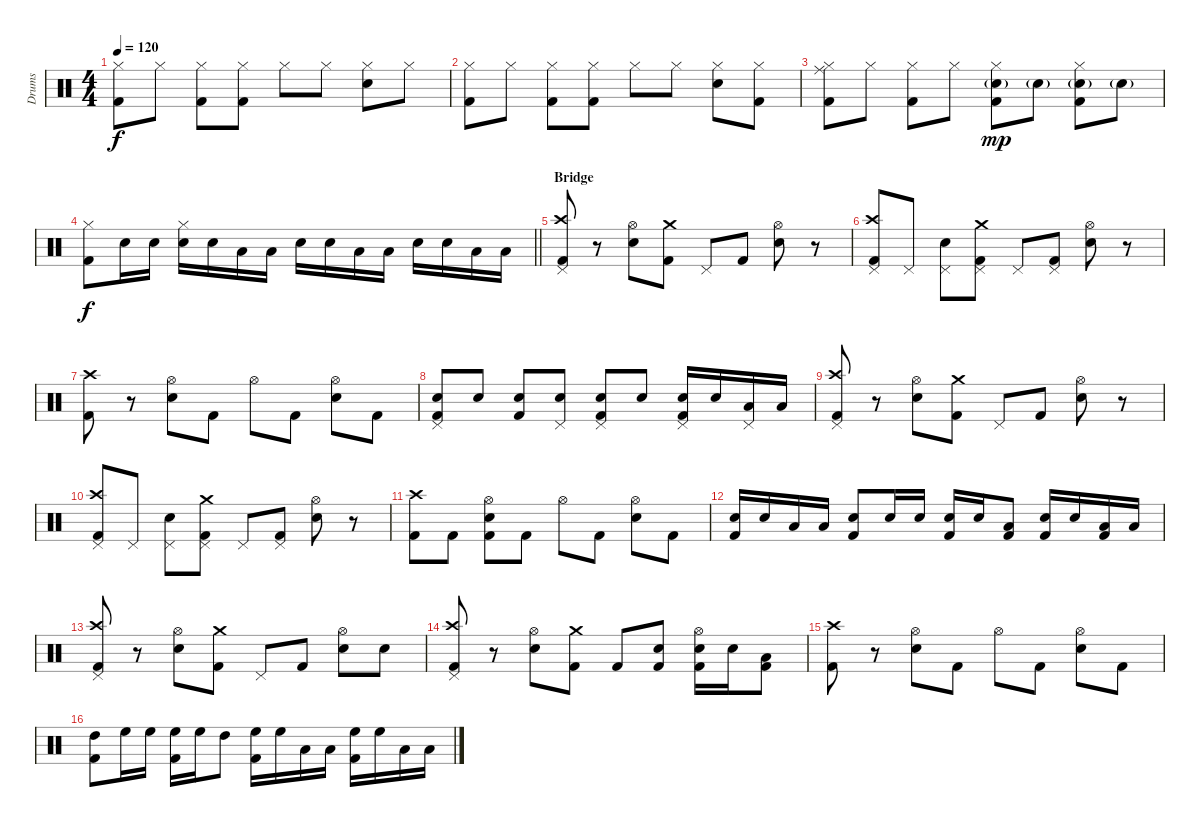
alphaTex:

\track ("Drums" "Drums") {instrument percussion}
\staff {score}
\articulation defaults
\ts (4 4)
\tempo 120
\clef neutral
\ks c
("Hi-Hat (closed)" "Kick (hit) 2").8{dy f} "Hi-Hat (closed)".8 ("Hi-Hat (closed)" "Kick (hit) 2").8 ("Hi-Hat (closed)" "Kick (hit) 2").8 "Hi-Hat (closed)".8 "Hi-Hat (closed)".8 ("Hi-Hat (closed)" "Electric Snare (hit)").8 "Hi-Hat (closed)".8 |
("Hi-Hat (closed)" "Kick (hit) 2").8 "Hi-Hat (closed)".8 ("Hi-Hat (closed)" "Kick (hit) 2").8 ("Hi-Hat (closed)" "Kick (hit) 2").8 "Hi-Hat (closed)".8 "Hi-Hat (closed)".8 ("Hi-Hat (closed)" "Electric Snare (hit)").8 ("Hi-Hat (closed)" "Kick (hit) 2").8 |
("Ride (middle)" "Hi-Hat (closed)" "Kick (hit) 2").8 "Hi-Hat (closed)".8 ("Hi-Hat (closed)" "Kick (hit) 2").8 "Hi-Hat (closed)".8 ("Hi-Hat (closed)" "Electric Snare (hit)"{g} "Kick (hit) 2").8{dy mp} "Electric Snare (hit)"{g}.8 ("Hi-Hat (closed)" "Electric Snare (hit)"{g} "Kick (hit) 2").8 "Electric Snare (hit)"{g}.8 |
\barLineRight lightlight
("Hi-Hat (closed)" "Kick (hit) 2").8{dy f} "Electric Snare (hit)".16 "Electric Snare (hit)".16 ("Hi-Hat (closed)" "Electric Snare (hit)").16 "Electric Snare (hit)".16 "Low Tom (hit)".16 "Low Tom (hit)".16 "Electric Snare (hit)".16 "Electric Snare (hit)".16 "Low Tom (hit)".16 "Low Tom (hit)".16 "Electric Snare (hit)".16 "Electric Snare (hit)".16 "Low Tom (hit)".16 "Low Tom (hit)".16 |
\section ("" "Bridge")
("Crash high (hit)" "Pedal Hi-Hat (hit)" "Kick (hit) 2").8 r.8 ("Hi-Hat (open)" "Electric Snare (hit)").8 ("Crash medium (hit)" "Kick (hit) 2").8 "Pedal Hi-Hat (hit)".8 "Kick (hit) 2".8 ("Hi-Hat (open)" "Electric Snare (hit)").8 r.8 |
("Crash high (hit)" "Pedal Hi-Hat (hit)" "Kick (hit) 2").8 "Pedal Hi-Hat (hit)".8 ("Pedal Hi-Hat (hit)" "Electric Snare (hit)").8 ("Crash medium (hit)" "Pedal Hi-Hat (hit)" "Kick (hit) 2").8 "Pedal Hi-Hat (hit)".8 ("Pedal Hi-Hat (hit)" "Kick (hit) 2").8 ("Hi-Hat (open)" "Electric Snare (hit)").8 r.8 |
("Crash high (hit)" "Kick (hit) 2").8 r.8 ("Hi-Hat (open)" "Electric Snare (hit)").8 "Kick (hit) 2".8 "Hi-Hat (open)".8 "Kick (hit) 2".8 ("Hi-Hat (open)" "Electric Snare (hit)").8 "Kick (hit) 2".8 |
("Pedal Hi-Hat (hit)" "Electric Snare (hit)" "Kick (hit) 2").8 "Electric Snare (hit)".8 ("Electric Snare (hit)" "Kick (hit) 2").8 ("Pedal Hi-Hat (hit)" "Electric Snare (hit)").8 ("Pedal Hi-Hat (hit)" "Electric Snare (hit)" "Kick (hit) 2").8 "Electric Snare (hit)".8 ("Pedal Hi-Hat (hit)" "Electric Snare (hit)" "Kick (hit) 2").16 "Electric Snare (hit)".16 ("Pedal Hi-Hat (hit)" "Low Tom (hit)").16 "Low Tom (hit)".16 |
("Crash high (hit)" "Pedal Hi-Hat (hit)" "Kick (hit) 2").8 r.8 ("Hi-Hat (open)" "Electric Snare (hit)").8 ("Crash medium (hit)" "Kick (hit) 2").8 "Pedal Hi-Hat (hit)".8 "Kick (hit) 2".8 ("Hi-Hat (open)" "Electric Snare (hit)").8 r.8 |
("Crash high (hit)" "Pedal Hi-Hat (hit)" "Kick (hit) 2").8 "Pedal Hi-Hat (hit)".8 ("Pedal Hi-Hat (hit)" "Electric Snare (hit)").8 ("Crash medium (hit)" "Pedal Hi-Hat (hit)" "Kick (hit) 2").8 "Pedal Hi-Hat (hit)".8 ("Pedal Hi-Hat (hit)" "Kick (hit) 2").8 ("Hi-Hat (open)" "Electric Snare (hit)").8 r.8 |
("Crash high (hit)" "Kick (hit) 2").8 "Kick (hit) 2".8 ("Hi-Hat (open)" "Electric Snare (hit)" "Kick (hit) 2").8 "Kick (hit) 2".8 "Hi-Hat (open)".8 "Kick (hit) 2".8 ("Hi-Hat (open)" "Electric Snare (hit)").8 "Kick (hit) 2".8 |
("Electric Snare (hit)" "Kick (hit) 2").16 "Electric Snare (hit)".16 "Low Tom (hit)".16 "Low Tom (hit)".16 ("Electric Snare (hit)" "Kick (hit) 2").8 "Electric Snare (hit)".16 "Electric Snare (hit)".16 ("Electric Snare (hit)" "Kick (hit) 2").16 "Electric Snare (hit)".16 ("Low Tom (hit)" "Kick (hit) 2").8 ("Electric Snare (hit)" "Kick (hit) 2").16 "Electric Snare (hit)".16 ("Low Tom (hit)" "Kick (hit) 2").16 "Low Tom (hit)".16 |
("Crash high (hit)" "Pedal Hi-Hat (hit)" "Kick (hit) 2").8 r.8 ("Hi-Hat (open)" "Electric Snare (hit)").8 ("Crash medium (hit)" "Kick (hit) 2").8 "Pedal Hi-Hat (hit)".8 "Kick (hit) 2".8 ("Hi-Hat (open)" "Electric Snare (hit)").8 "Electric Snare (hit)".8 |
("Crash high (hit)" "Pedal Hi-Hat (hit)" "Kick (hit) 2").8 r.8 ("Hi-Hat (open)" "Electric Snare (hit)").8 ("Crash medium (hit)" "Kick (hit) 2").8 "Kick (hit) 2".8 ("Electric Snare (hit)" "Kick (hit) 2").8 ("Hi-Hat (open)" "Electric Snare (hit)" "Kick (hit) 2").16 "Electric Snare (hit)".16 ("Low Tom (hit)" "Kick (hit) 2").8 |
("Crash high (hit)" "Kick (hit) 2").8 r.8 ("Hi-Hat (open)" "Electric Snare (hit)").8 "Kick (hit) 2".8 "Hi-Hat (open)".8 "Kick (hit) 2".8 ("Hi-Hat (open)" "Electric Snare (hit)").8 "Kick (hit) 2".8 |
("High Tom (hit)" "Kick (hit) 2").8 "High Floor Tom (hit)".16 "High Floor Tom (hit)".16 ("High Floor Tom (hit)" "Kick (hit) 2").16 "High Floor Tom (hit)".16 "High Tom (hit)".8 ("High Floor Tom (hit)" "Kick (hit) 2").16 "High Floor Tom (hit)".16 "Low Tom (hit)".16 "Low Tom (hit)".16 ("High Floor Tom (hit)" "Kick (hit) 2").16 "High Floor Tom (hit)".16 "Low Tom (hit)".16 "Low Tom (hit)".16
